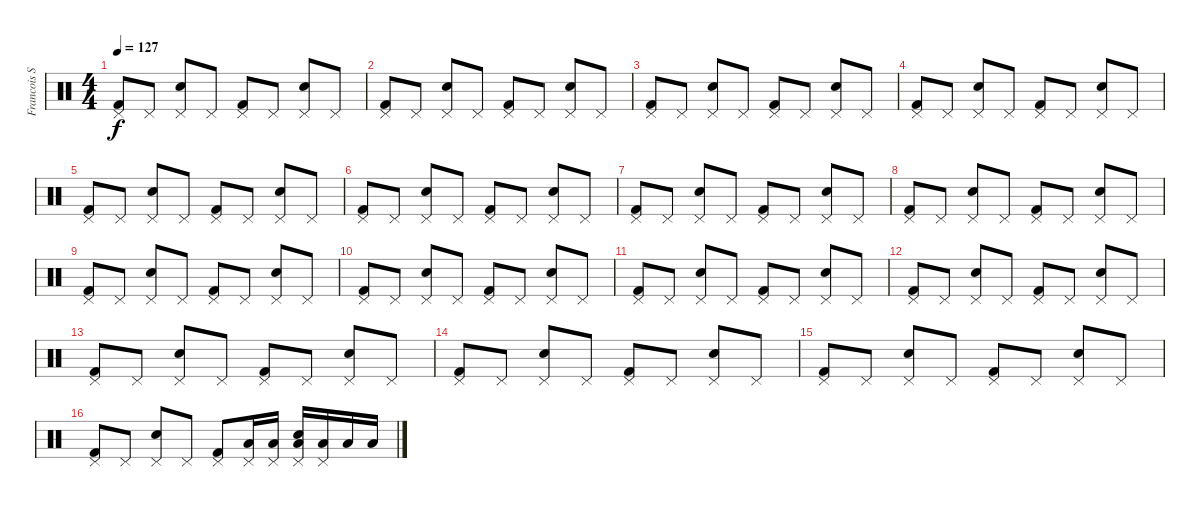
\track ("Francois Soulier" "Francois S") {instrument percussion}
\staff {score}
\articulation defaults
\ts (4 4)
\tempo 127
\clef neutral
\ks c
("Kick (hit) 2" "Pedal Hi-Hat (hit)").8{dy f} "Pedal Hi-Hat (hit)".8 ("Snare (hit) 2" "Pedal Hi-Hat (hit)").8 "Pedal Hi-Hat (hit)".8 ("Kick (hit) 2" "Pedal Hi-Hat (hit)").8 "Pedal Hi-Hat (hit)".8 ("Snare (hit) 2" "Pedal Hi-Hat (hit)").8 "Pedal Hi-Hat (hit)".8 |
("Kick (hit) 2" "Pedal Hi-Hat (hit)").8 "Pedal Hi-Hat (hit)".8 ("Snare (hit) 2" "Pedal Hi-Hat (hit)").8 "Pedal Hi-Hat (hit)".8 ("Kick (hit) 2" "Pedal Hi-Hat (hit)").8 "Pedal Hi-Hat (hit)".8 ("Snare (hit) 2" "Pedal Hi-Hat (hit)").8 "Pedal Hi-Hat (hit)".8 |
("Kick (hit) 2" "Pedal Hi-Hat (hit)").8 "Pedal Hi-Hat (hit)".8 ("Snare (hit) 2" "Pedal Hi-Hat (hit)").8 "Pedal Hi-Hat (hit)".8 ("Kick (hit) 2" "Pedal Hi-Hat (hit)").8 "Pedal Hi-Hat (hit)".8 ("Snare (hit) 2" "Pedal Hi-Hat (hit)").8 "Pedal Hi-Hat (hit)".8 |
("Kick (hit) 2" "Pedal Hi-Hat (hit)").8 "Pedal Hi-Hat (hit)".8 ("Snare (hit) 2" "Pedal Hi-Hat (hit)").8 "Pedal Hi-Hat (hit)".8 ("Kick (hit) 2" "Pedal Hi-Hat (hit)").8 "Pedal Hi-Hat (hit)".8 ("Snare (hit) 2" "Pedal Hi-Hat (hit)").8 "Pedal Hi-Hat (hit)".8 |
("Kick (hit) 2" "Pedal Hi-Hat (hit)").8 "Pedal Hi-Hat (hit)".8 ("Snare (hit) 2" "Pedal Hi-Hat (hit)").8 "Pedal Hi-Hat (hit)".8 ("Kick (hit) 2" "Pedal Hi-Hat (hit)").8 "Pedal Hi-Hat (hit)".8 ("Snare (hit) 2" "Pedal Hi-Hat (hit)").8 "Pedal Hi-Hat (hit)".8 |
("Kick (hit) 2" "Pedal Hi-Hat (hit)").8 "Pedal Hi-Hat (hit)".8 ("Snare (hit) 2" "Pedal Hi-Hat (hit)").8 "Pedal Hi-Hat (hit)".8 ("Kick (hit) 2" "Pedal Hi-Hat (hit)").8 "Pedal Hi-Hat (hit)".8 ("Snare (hit) 2" "Pedal Hi-Hat (hit)").8 "Pedal Hi-Hat (hit)".8 |
("Kick (hit) 2" "Pedal Hi-Hat (hit)").8 "Pedal Hi-Hat (hit)".8 ("Snare (hit) 2" "Pedal Hi-Hat (hit)").8 "Pedal Hi-Hat (hit)".8 ("Kick (hit) 2" "Pedal Hi-Hat (hit)").8 "Pedal Hi-Hat (hit)".8 ("Snare (hit) 2" "Pedal Hi-Hat (hit)").8 "Pedal Hi-Hat (hit)".8 |
("Kick (hit) 2" "Pedal Hi-Hat (hit)").8 "Pedal Hi-Hat (hit)".8 ("Snare (hit) 2" "Pedal Hi-Hat (hit)").8 "Pedal Hi-Hat (hit)".8 ("Kick (hit) 2" "Pedal Hi-Hat (hit)").8 "Pedal Hi-Hat (hit)".8 ("Snare (hit) 2" "Pedal Hi-Hat (hit)").8 "Pedal Hi-Hat (hit)".8 |
("Kick (hit) 2" "Pedal Hi-Hat (hit)").8 "Pedal Hi-Hat (hit)".8 ("Snare (hit) 2" "Pedal Hi-Hat (hit)").8 "Pedal Hi-Hat (hit)".8 ("Kick (hit) 2" "Pedal Hi-Hat (hit)").8 "Pedal Hi-Hat (hit)".8 ("Snare (hit) 2" "Pedal Hi-Hat (hit)").8 "Pedal Hi-Hat (hit)".8 |
("Kick (hit) 2" "Pedal Hi-Hat (hit)").8 "Pedal Hi-Hat (hit)".8 ("Snare (hit) 2" "Pedal Hi-Hat (hit)").8 "Pedal Hi-Hat (hit)".8 ("Kick (hit) 2" "Pedal Hi-Hat (hit)").8 "Pedal Hi-Hat (hit)".8 ("Snare (hit) 2" "Pedal Hi-Hat (hit)").8 "Pedal Hi-Hat (hit)".8 |
("Kick (hit) 2" "Pedal Hi-Hat (hit)").8 "Pedal Hi-Hat (hit)".8 ("Snare (hit) 2" "Pedal Hi-Hat (hit)").8 "Pedal Hi-Hat (hit)".8 ("Kick (hit) 2" "Pedal Hi-Hat (hit)").8 "Pedal Hi-Hat (hit)".8 ("Snare (hit) 2" "Pedal Hi-Hat (hit)").8 "Pedal Hi-Hat (hit)".8 |
("Kick (hit) 2" "Pedal Hi-Hat (hit)").8 "Pedal Hi-Hat (hit)".8 ("Snare (hit) 2" "Pedal Hi-Hat (hit)").8 "Pedal Hi-Hat (hit)".8 ("Kick (hit) 2" "Pedal Hi-Hat (hit)").8 "Pedal Hi-Hat (hit)".8 ("Snare (hit) 2" "Pedal Hi-Hat (hit)").8 "Pedal Hi-Hat (hit)".8 |
("Kick (hit) 2" "Pedal Hi-Hat (hit)").8 "Pedal Hi-Hat (hit)".8 ("Snare (hit) 2" "Pedal Hi-Hat (hit)").8 "Pedal Hi-Hat (hit)".8 ("Kick (hit) 2" "Pedal Hi-Hat (hit)").8 "Pedal Hi-Hat (hit)".8 ("Snare (hit) 2" "Pedal Hi-Hat (hit)").8 "Pedal Hi-Hat (hit)".8 |
("Kick (hit) 2" "Pedal Hi-Hat (hit)").8 "Pedal Hi-Hat (hit)".8 ("Snare (hit) 2" "Pedal Hi-Hat (hit)").8 "Pedal Hi-Hat (hit)".8 ("Kick (hit) 2" "Pedal Hi-Hat (hit)").8 "Pedal Hi-Hat (hit)".8 ("Snare (hit) 2" "Pedal Hi-Hat (hit)").8 "Pedal Hi-Hat (hit)".8 |
("Kick (hit) 2" "Pedal Hi-Hat (hit)").8 "Pedal Hi-Hat (hit)".8 ("Snare (hit) 2" "Pedal Hi-Hat (hit)").8 "Pedal Hi-Hat (hit)".8 ("Kick (hit) 2" "Pedal Hi-Hat (hit)").8 "Pedal Hi-Hat (hit)".8 ("Snare (hit) 2" "Pedal Hi-Hat (hit)").8 "Pedal Hi-Hat (hit)".8 |
("Kick (hit) 2" "Pedal Hi-Hat (hit)").8 "Pedal Hi-Hat (hit)".8 ("Snare (hit) 2" "Pedal Hi-Hat (hit)").8 "Pedal Hi-Hat (hit)".8 ("Kick (hit) 2" "Pedal Hi-Hat (hit)").8 ("Low Floor Tom (hit)" "Pedal Hi-Hat (hit)").16 ("Low Floor Tom (hit)" "Pedal Hi-Hat (hit)").16 ("Low Floor Tom (hit)" "Snare (hit) 2" "Pedal Hi-Hat (hit)").16 ("Low Floor Tom (hit)" "Pedal Hi-Hat (hit)").16 "Low Floor Tom (hit)".16 "Low Floor Tom (hit)".16
